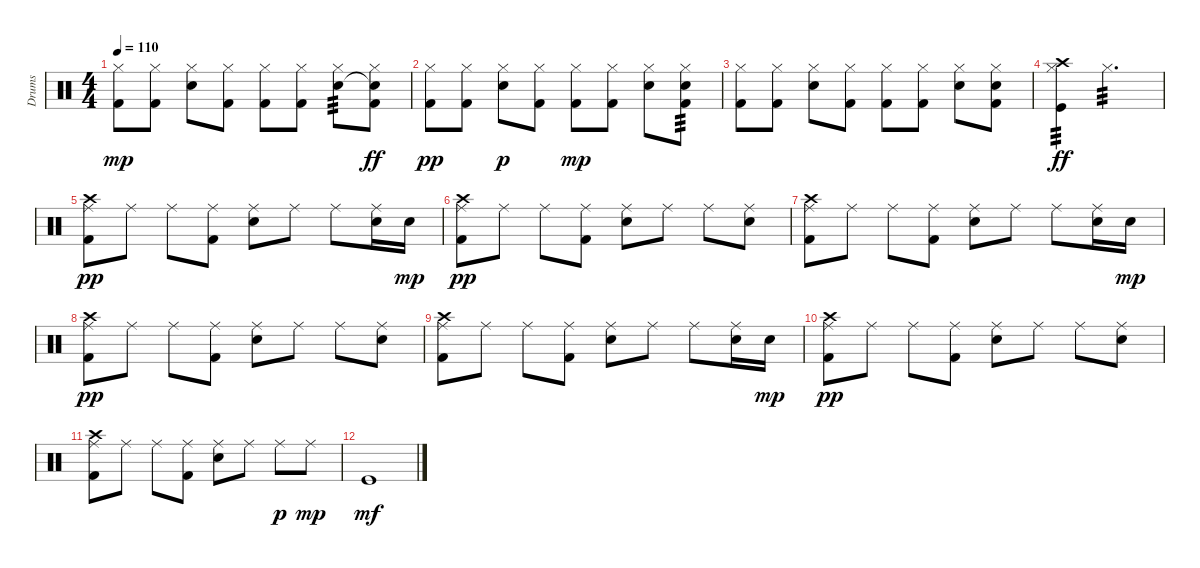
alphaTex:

\track ("Drums" "Drums") {instrument percussion}
\staff {score}
\articulation defaults
\ts (4 4)
\tempo 110
\clef neutral
\ks c
("Kick (hit) 2" "Hi-Hat (closed)").8{dy mp} ("Kick (hit) 2" "Hi-Hat (closed)").8 ("Electric Snare (hit)" "Hi-Hat (closed)").8 ("Kick (hit) 2" "Hi-Hat (closed)").8 ("Kick (hit) 2" "Hi-Hat (closed)").8 ("Kick (hit) 2" "Hi-Hat (closed)").8 ("Electric Snare (hit)" "Hi-Hat (closed)").8{tp 3} ("Electric Snare (hit)"{t} "Hi-Hat (closed)" "Kick (hit) 2").8{dy ff} |
("Kick (hit) 2" "Hi-Hat (closed)").8{dy pp} ("Kick (hit) 2" "Hi-Hat (closed)").8 ("Electric Snare (hit)" "Hi-Hat (closed)").8{dy p} ("Kick (hit) 2" "Hi-Hat (closed)").8 ("Kick (hit) 2" "Hi-Hat (closed)").8{dy mp} ("Kick (hit) 2" "Hi-Hat (closed)").8 ("Electric Snare (hit)" "Hi-Hat (closed)").8 ("Kick (hit) 2" "Electric Snare (hit)" "Hi-Hat (closed)").8{tp 3} |
("Kick (hit) 2" "Hi-Hat (closed)").8 ("Kick (hit) 2" "Hi-Hat (closed)").8 ("Electric Snare (hit)" "Hi-Hat (closed)").8 ("Kick (hit) 2" "Hi-Hat (closed)").8 ("Kick (hit) 2" "Hi-Hat (closed)").8 ("Kick (hit) 2" "Hi-Hat (closed)").8 ("Electric Snare (hit)" "Hi-Hat (closed)").8 ("Kick (hit) 2" "Electric Snare (hit)" "Hi-Hat (closed)").8 |
("Kick (hit)" "Crash high (hit)" "Hi-Hat (closed)").4{tp 3 dy ff} "Hi-Hat (closed)".2{d tp 3} |
("Kick (hit) 2" "Crash high (hit)" "Ride (middle)").8{dy pp} "Ride (middle)".8 "Ride (middle)".8 ("Kick (hit) 2" "Ride (middle)").8 ("Snare (hit) 2" "Ride (middle)").8 "Ride (middle)".8 "Ride (middle)".8 ("Snare (hit) 2" "Ride (middle)").16 "Snare (hit) 2".16{dy mp} |
("Kick (hit) 2" "Crash high (hit)" "Ride (middle)").8{dy pp} "Ride (middle)".8 "Ride (middle)".8 ("Kick (hit) 2" "Ride (middle)").8 ("Snare (hit) 2" "Ride (middle)").8 "Ride (middle)".8 "Ride (middle)".8 ("Snare (hit) 2" "Ride (middle)").8 |
("Kick (hit) 2" "Crash high (hit)" "Ride (middle)").8 "Ride (middle)".8 "Ride (middle)".8 ("Kick (hit) 2" "Ride (middle)").8 ("Snare (hit) 2" "Ride (middle)").8 "Ride (middle)".8 "Ride (middle)".8 ("Snare (hit) 2" "Ride (middle)").16 "Snare (hit) 2".16{dy mp} |
("Kick (hit) 2" "Crash high (hit)" "Ride (middle)").8{dy pp} "Ride (middle)".8 "Ride (middle)".8 ("Kick (hit) 2" "Ride (middle)").8 ("Snare (hit) 2" "Ride (middle)").8 "Ride (middle)".8 "Ride (middle)".8 ("Snare (hit) 2" "Ride (middle)").8 |
("Kick (hit) 2" "Crash high (hit)" "Ride (middle)").8 "Ride (middle)".8 "Ride (middle)".8 ("Kick (hit) 2" "Ride (middle)").8 ("Snare (hit) 2" "Ride (middle)").8 "Ride (middle)".8 "Ride (middle)".8 ("Snare (hit) 2" "Ride (middle)").16 "Snare (hit) 2".16{dy mp} |
("Kick (hit) 2" "Crash high (hit)" "Ride (middle)").8{dy pp} "Ride (middle)".8 "Ride (middle)".8 ("Kick (hit) 2" "Ride (middle)").8 ("Snare (hit) 2" "Ride (middle)").8 "Ride (middle)".8 "Ride (middle)".8 ("Snare (hit) 2" "Ride (middle)").8 |
("Kick (hit) 2" "Crash high (hit)" "Ride (middle)").8 "Ride (middle)".8 "Ride (middle)".8 ("Kick (hit) 2" "Ride (middle)").8 ("Snare (hit) 2" "Ride (middle)").8 "Ride (middle)".8 "Ride (middle)".8{dy p} "Ride (middle)".8{dy mp} |
"Kick (hit)".1{dy mf}
